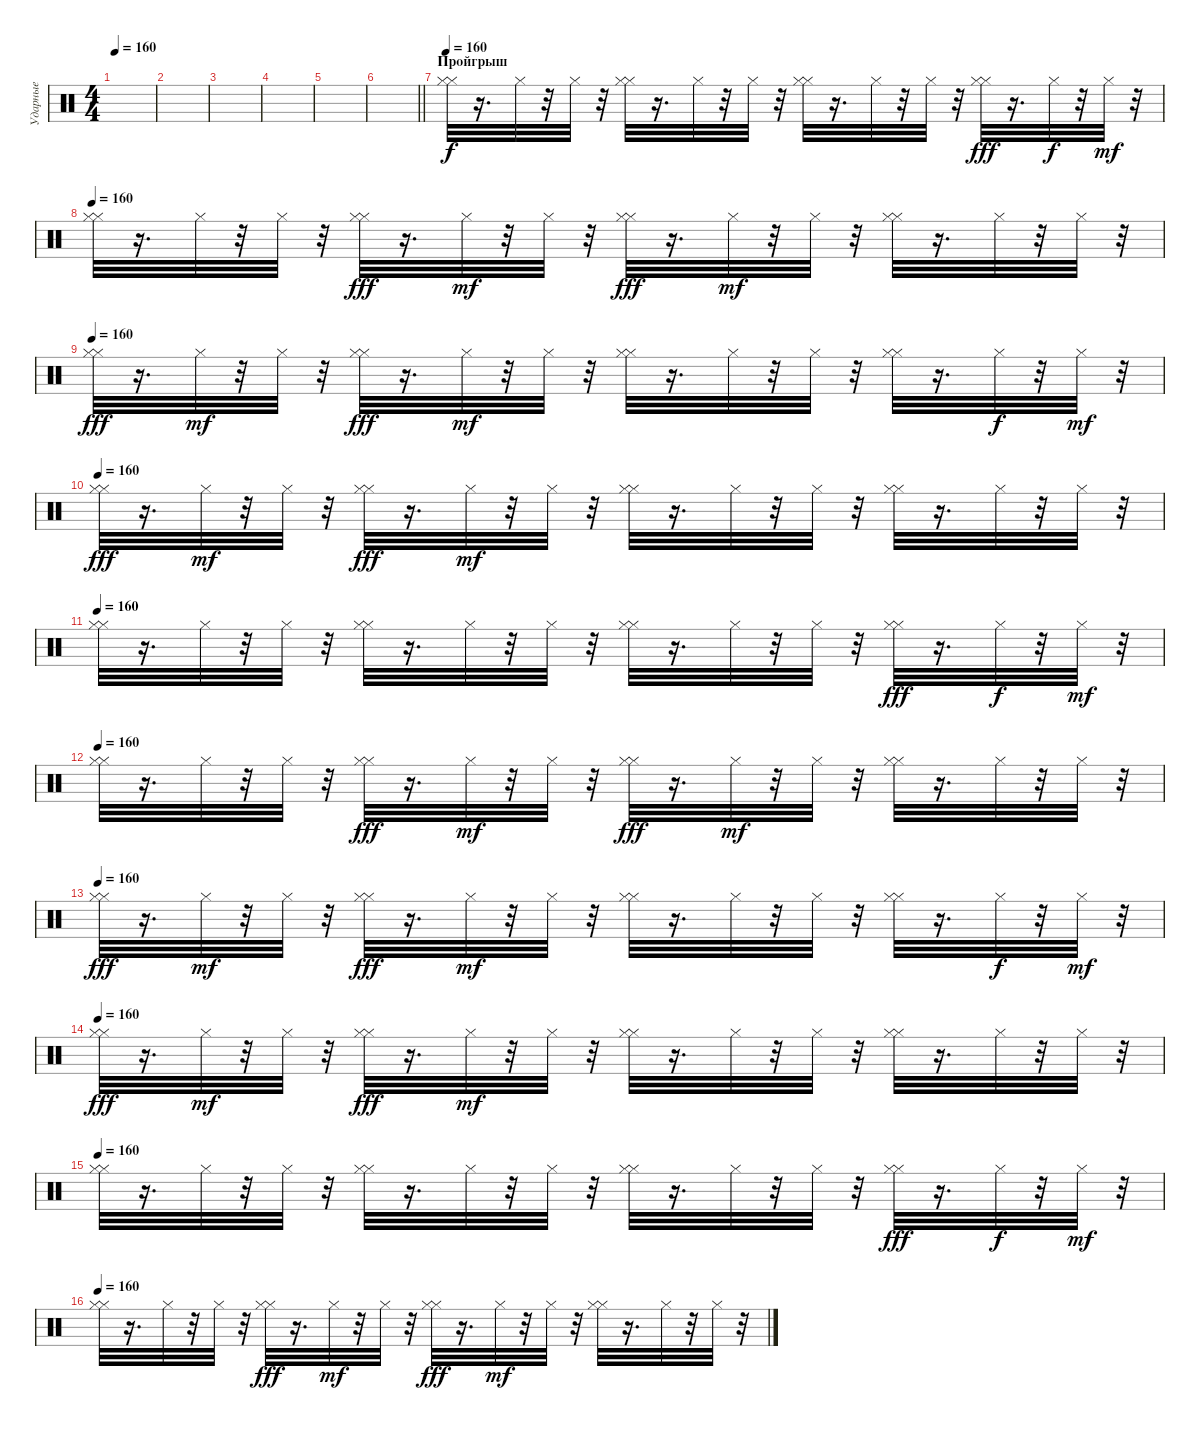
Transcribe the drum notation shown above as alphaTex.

\track ("Ударные" "Ударные") {instrument percussion}
\staff {score}
\articulation defaults
\ts (4 4)
\tempo 160
\clef neutral
\ks c
|
|
|
|
|
\barLineRight lightlight
|
\section ("" "Пройгрыш")
\tempo 160
("Hi-Hat (closed)" "Hi-Hat (closed)").32 r.16{d} "Hi-Hat (closed)".32 r.32 "Hi-Hat (closed)".32 r.32 ("Hi-Hat (closed)" "Hi-Hat (closed)").32 r.16{d} "Hi-Hat (closed)".32 r.32 "Hi-Hat (closed)".32 r.32 ("Hi-Hat (closed)" "Hi-Hat (closed)").32 r.16{d} "Hi-Hat (closed)".32 r.32 "Hi-Hat (closed)".32 r.32 ("Hi-Hat (closed)" "Hi-Hat (closed)").32{dy fff} r.16{d} "Hi-Hat (closed)".32{dy f} r.32 "Hi-Hat (closed)".32{dy mf} r.32 |
\tempo 160
("Hi-Hat (closed)" "Hi-Hat (closed)").32 r.16{d} "Hi-Hat (closed)".32 r.32 "Hi-Hat (closed)".32 r.32 ("Hi-Hat (closed)" "Hi-Hat (closed)").32{dy fff} r.16{d} "Hi-Hat (closed)".32{dy mf} r.32 "Hi-Hat (closed)".32 r.32 ("Hi-Hat (closed)" "Hi-Hat (closed)").32{dy fff} r.16{d} "Hi-Hat (closed)".32{dy mf} r.32 "Hi-Hat (closed)".32 r.32 ("Hi-Hat (closed)" "Hi-Hat (closed)").32 r.16{d} "Hi-Hat (closed)".32 r.32 "Hi-Hat (closed)".32 r.32 |
\tempo 160
("Hi-Hat (closed)" "Hi-Hat (closed)").32{dy fff} r.16{d} "Hi-Hat (closed)".32{dy mf} r.32 "Hi-Hat (closed)".32 r.32 ("Hi-Hat (closed)" "Hi-Hat (closed)").32{dy fff} r.16{d} "Hi-Hat (closed)".32{dy mf} r.32 "Hi-Hat (closed)".32 r.32 ("Hi-Hat (closed)" "Hi-Hat (closed)").32 r.16{d} "Hi-Hat (closed)".32 r.32 "Hi-Hat (closed)".32 r.32 ("Hi-Hat (closed)" "Hi-Hat (closed)").32 r.16{d} "Hi-Hat (closed)".32{dy f} r.32 "Hi-Hat (closed)".32{dy mf} r.32 |
\tempo 160
("Hi-Hat (closed)" "Hi-Hat (closed)").32{dy fff} r.16{d} "Hi-Hat (closed)".32{dy mf} r.32 "Hi-Hat (closed)".32 r.32 ("Hi-Hat (closed)" "Hi-Hat (closed)").32{dy fff} r.16{d} "Hi-Hat (closed)".32{dy mf} r.32 "Hi-Hat (closed)".32 r.32 ("Hi-Hat (closed)" "Hi-Hat (closed)").32 r.16{d} "Hi-Hat (closed)".32 r.32 "Hi-Hat (closed)".32 r.32 ("Hi-Hat (closed)" "Hi-Hat (closed)").32 r.16{d} "Hi-Hat (closed)".32 r.32 "Hi-Hat (closed)".32 r.32 |
\tempo 160
("Hi-Hat (closed)" "Hi-Hat (closed)").32 r.16{d} "Hi-Hat (closed)".32 r.32 "Hi-Hat (closed)".32 r.32 ("Hi-Hat (closed)" "Hi-Hat (closed)").32 r.16{d} "Hi-Hat (closed)".32 r.32 "Hi-Hat (closed)".32 r.32 ("Hi-Hat (closed)" "Hi-Hat (closed)").32 r.16{d} "Hi-Hat (closed)".32 r.32 "Hi-Hat (closed)".32 r.32 ("Hi-Hat (closed)" "Hi-Hat (closed)").32{dy fff} r.16{d} "Hi-Hat (closed)".32{dy f} r.32 "Hi-Hat (closed)".32{dy mf} r.32 |
\tempo 160
("Hi-Hat (closed)" "Hi-Hat (closed)").32 r.16{d} "Hi-Hat (closed)".32 r.32 "Hi-Hat (closed)".32 r.32 ("Hi-Hat (closed)" "Hi-Hat (closed)").32{dy fff} r.16{d} "Hi-Hat (closed)".32{dy mf} r.32 "Hi-Hat (closed)".32 r.32 ("Hi-Hat (closed)" "Hi-Hat (closed)").32{dy fff} r.16{d} "Hi-Hat (closed)".32{dy mf} r.32 "Hi-Hat (closed)".32 r.32 ("Hi-Hat (closed)" "Hi-Hat (closed)").32 r.16{d} "Hi-Hat (closed)".32 r.32 "Hi-Hat (closed)".32 r.32 |
\tempo 160
("Hi-Hat (closed)" "Hi-Hat (closed)").32{dy fff} r.16{d} "Hi-Hat (closed)".32{dy mf} r.32 "Hi-Hat (closed)".32 r.32 ("Hi-Hat (closed)" "Hi-Hat (closed)").32{dy fff} r.16{d} "Hi-Hat (closed)".32{dy mf} r.32 "Hi-Hat (closed)".32 r.32 ("Hi-Hat (closed)" "Hi-Hat (closed)").32 r.16{d} "Hi-Hat (closed)".32 r.32 "Hi-Hat (closed)".32 r.32 ("Hi-Hat (closed)" "Hi-Hat (closed)").32 r.16{d} "Hi-Hat (closed)".32{dy f} r.32 "Hi-Hat (closed)".32{dy mf} r.32 |
\tempo 160
("Hi-Hat (closed)" "Hi-Hat (closed)").32{dy fff} r.16{d} "Hi-Hat (closed)".32{dy mf} r.32 "Hi-Hat (closed)".32 r.32 ("Hi-Hat (closed)" "Hi-Hat (closed)").32{dy fff} r.16{d} "Hi-Hat (closed)".32{dy mf} r.32 "Hi-Hat (closed)".32 r.32 ("Hi-Hat (closed)" "Hi-Hat (closed)").32 r.16{d} "Hi-Hat (closed)".32 r.32 "Hi-Hat (closed)".32 r.32 ("Hi-Hat (closed)" "Hi-Hat (closed)").32 r.16{d} "Hi-Hat (closed)".32 r.32 "Hi-Hat (closed)".32 r.32 |
\tempo 160
("Hi-Hat (closed)" "Hi-Hat (closed)").32 r.16{d} "Hi-Hat (closed)".32 r.32 "Hi-Hat (closed)".32 r.32 ("Hi-Hat (closed)" "Hi-Hat (closed)").32 r.16{d} "Hi-Hat (closed)".32 r.32 "Hi-Hat (closed)".32 r.32 ("Hi-Hat (closed)" "Hi-Hat (closed)").32 r.16{d} "Hi-Hat (closed)".32 r.32 "Hi-Hat (closed)".32 r.32 ("Hi-Hat (closed)" "Hi-Hat (closed)").32{dy fff} r.16{d} "Hi-Hat (closed)".32{dy f} r.32 "Hi-Hat (closed)".32{dy mf} r.32 |
\tempo 160
("Hi-Hat (closed)" "Hi-Hat (closed)").32 r.16{d} "Hi-Hat (closed)".32 r.32 "Hi-Hat (closed)".32 r.32 ("Hi-Hat (closed)" "Hi-Hat (closed)").32{dy fff} r.16{d} "Hi-Hat (closed)".32{dy mf} r.32 "Hi-Hat (closed)".32 r.32 ("Hi-Hat (closed)" "Hi-Hat (closed)").32{dy fff} r.16{d} "Hi-Hat (closed)".32{dy mf} r.32 "Hi-Hat (closed)".32 r.32 ("Hi-Hat (closed)" "Hi-Hat (closed)").32 r.16{d} "Hi-Hat (closed)".32 r.32 "Hi-Hat (closed)".32 r.32
